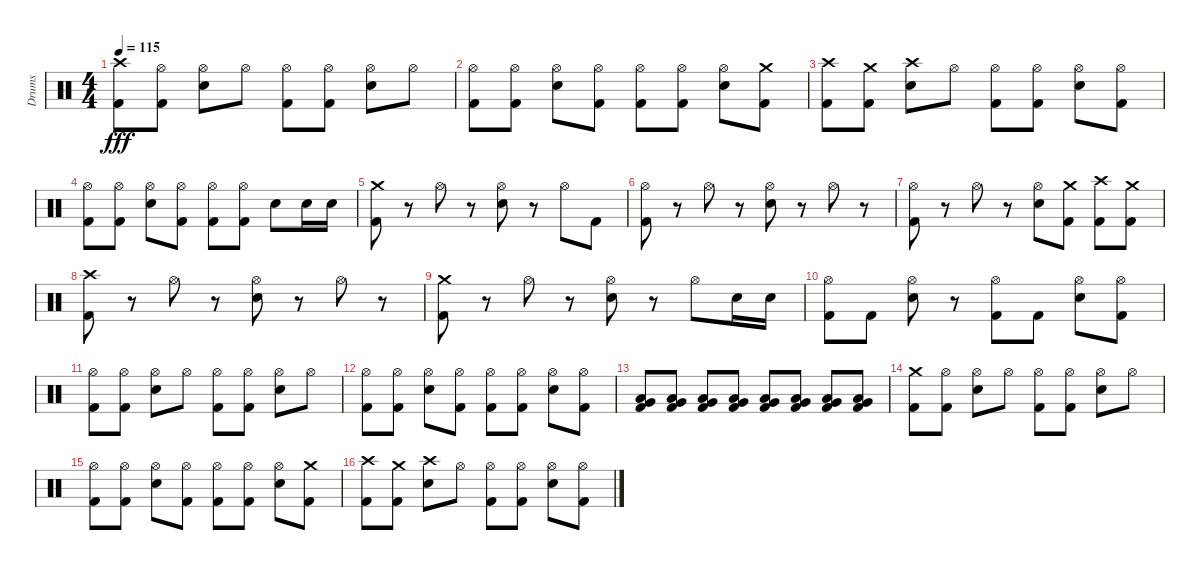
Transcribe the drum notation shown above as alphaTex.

\track ("Drums" "Drums") {instrument percussion}
\staff {score}
\articulation defaults
\ts (4 4)
\tempo 115
\clef neutral
\ks c
("Kick (hit) 2" "Crash high (hit)").8{dy fff} ("Hi-Hat (open)" "Kick (hit) 2").8 ("Hi-Hat (open)" "Electric Snare (hit)").8 "Hi-Hat (open)".8 ("Hi-Hat (open)" "Kick (hit) 2").8 ("Hi-Hat (open)" "Kick (hit) 2").8 ("Hi-Hat (open)" "Electric Snare (hit)").8 "Hi-Hat (open)".8 |
("Hi-Hat (open)" "Kick (hit) 2").8 ("Hi-Hat (open)" "Kick (hit) 2").8 ("Hi-Hat (open)" "Electric Snare (hit)").8 ("Kick (hit) 2" "Hi-Hat (open)").8 ("Hi-Hat (open)" "Kick (hit) 2").8 ("Hi-Hat (open)" "Kick (hit) 2").8 ("Hi-Hat (open)" "Electric Snare (hit)").8 ("Crash medium (hit)" "Kick (hit) 2").8 |
("Kick (hit) 2" "Crash high (hit)").8 ("Crash medium (hit)" "Kick (hit) 2").8 ("Crash high (hit)" "Electric Snare (hit)").8 "Hi-Hat (open)".8 ("Hi-Hat (open)" "Kick (hit) 2").8 ("Hi-Hat (open)" "Kick (hit) 2").8 ("Hi-Hat (open)" "Electric Snare (hit)").8 ("Hi-Hat (open)" "Kick (hit) 2").8 |
("Hi-Hat (open)" "Kick (hit) 2").8 ("Hi-Hat (open)" "Kick (hit) 2").8 ("Hi-Hat (open)" "Electric Snare (hit)").8 ("Hi-Hat (open)" "Kick (hit) 2").8 ("Hi-Hat (open)" "Kick (hit) 2").8 ("Hi-Hat (open)" "Kick (hit) 2").8 "Electric Snare (hit)".8 "Electric Snare (hit)".16 "Electric Snare (hit)".16 |
("Crash medium (hit)" "Kick (hit) 2").8 r.8 "Hi-Hat (open)".8 r.8 ("Hi-Hat (open)" "Electric Snare (hit)").8 r.8 "Hi-Hat (open)".8 "Kick (hit) 2".8 |
("Hi-Hat (open)" "Kick (hit) 2").8 r.8 "Hi-Hat (open)".8 r.8 ("Hi-Hat (open)" "Electric Snare (hit)").8 r.8 "Hi-Hat (open)".8 r.8 |
("Hi-Hat (open)" "Kick (hit) 2").8 r.8 "Hi-Hat (open)".8 r.8 ("Hi-Hat (open)" "Electric Snare (hit)").8 ("Kick (hit) 2" "Crash medium (hit)").8 ("Kick (hit) 2" "Crash high (hit)").8 ("Kick (hit) 2" "Crash medium (hit)").8 |
("Kick (hit) 2" "Crash high (hit)").8 r.8 "Hi-Hat (open)".8 r.8 ("Hi-Hat (open)" "Electric Snare (hit)").8 r.8 "Hi-Hat (open)".8 r.8 |
("Kick (hit) 2" "Crash medium (hit)").8 r.8 "Hi-Hat (open)".8 r.8 ("Hi-Hat (open)" "Electric Snare (hit)").8 r.8 "Hi-Hat (open)".8 "Electric Snare (hit)".16 "Electric Snare (hit)".16 |
("Hi-Hat (open)" "Kick (hit) 2").8 "Kick (hit) 2".8 ("Hi-Hat (open)" "Electric Snare (hit)").8 r.8 ("Hi-Hat (open)" "Kick (hit) 2").8 "Kick (hit) 2".8 ("Hi-Hat (open)" "Electric Snare (hit)").8 ("Kick (hit) 2" "Hi-Hat (open)").8 |
("Hi-Hat (open)" "Kick (hit) 2").8 ("Hi-Hat (open)" "Kick (hit) 2").8 ("Hi-Hat (open)" "Electric Snare (hit)").8 "Hi-Hat (open)".8 ("Hi-Hat (open)" "Kick (hit) 2").8 ("Hi-Hat (open)" "Kick (hit) 2").8 ("Hi-Hat (open)" "Electric Snare (hit)").8 "Hi-Hat (open)".8 |
("Hi-Hat (open)" "Kick (hit) 2").8 ("Hi-Hat (open)" "Kick (hit) 2").8 ("Hi-Hat (open)" "Electric Snare (hit)").8 ("Hi-Hat (open)" "Kick (hit) 2").8 ("Hi-Hat (open)" "Kick (hit) 2").8 ("Hi-Hat (open)" "Kick (hit) 2").8 ("Hi-Hat (open)" "Electric Snare (hit)").8 ("Hi-Hat (open)" "Kick (hit) 2").8 |
("Low Tom (hit)" "Very Low Tom (hit)" "Kick (hit) 2").8 ("Kick (hit) 2" "Very Low Tom (hit)" "Low Tom (hit)").8 ("Kick (hit) 2" "Very Low Tom (hit)" "Low Tom (hit)").8 ("Kick (hit) 2" "Very Low Tom (hit)" "Low Tom (hit)").8 ("Kick (hit) 2" "Very Low Tom (hit)" "Low Tom (hit)").8 ("Kick (hit) 2" "Very Low Tom (hit)" "Low Tom (hit)").8 ("Kick (hit) 2" "Very Low Tom (hit)" "Low Tom (hit)").8 ("Kick (hit) 2" "Very Low Tom (hit)" "Low Tom (hit)").8 |
("Kick (hit) 2" "Crash medium (hit)").8 ("Hi-Hat (open)" "Kick (hit) 2").8 ("Hi-Hat (open)" "Electric Snare (hit)").8 "Hi-Hat (open)".8 ("Hi-Hat (open)" "Kick (hit) 2").8 ("Hi-Hat (open)" "Kick (hit) 2").8 ("Hi-Hat (open)" "Electric Snare (hit)").8 "Hi-Hat (open)".8 |
("Hi-Hat (open)" "Kick (hit) 2").8 ("Hi-Hat (open)" "Kick (hit) 2").8 ("Hi-Hat (open)" "Electric Snare (hit)").8 ("Kick (hit) 2" "Hi-Hat (open)").8 ("Hi-Hat (open)" "Kick (hit) 2").8 ("Hi-Hat (open)" "Kick (hit) 2").8 ("Hi-Hat (open)" "Electric Snare (hit)").8 ("Crash medium (hit)" "Kick (hit) 2").8 |
("Kick (hit) 2" "Crash high (hit)").8 ("Crash medium (hit)" "Kick (hit) 2").8 ("Crash high (hit)" "Electric Snare (hit)").8 "Hi-Hat (open)".8 ("Hi-Hat (open)" "Kick (hit) 2").8 ("Hi-Hat (open)" "Kick (hit) 2").8 ("Hi-Hat (open)" "Electric Snare (hit)").8 ("Hi-Hat (open)" "Kick (hit) 2").8
